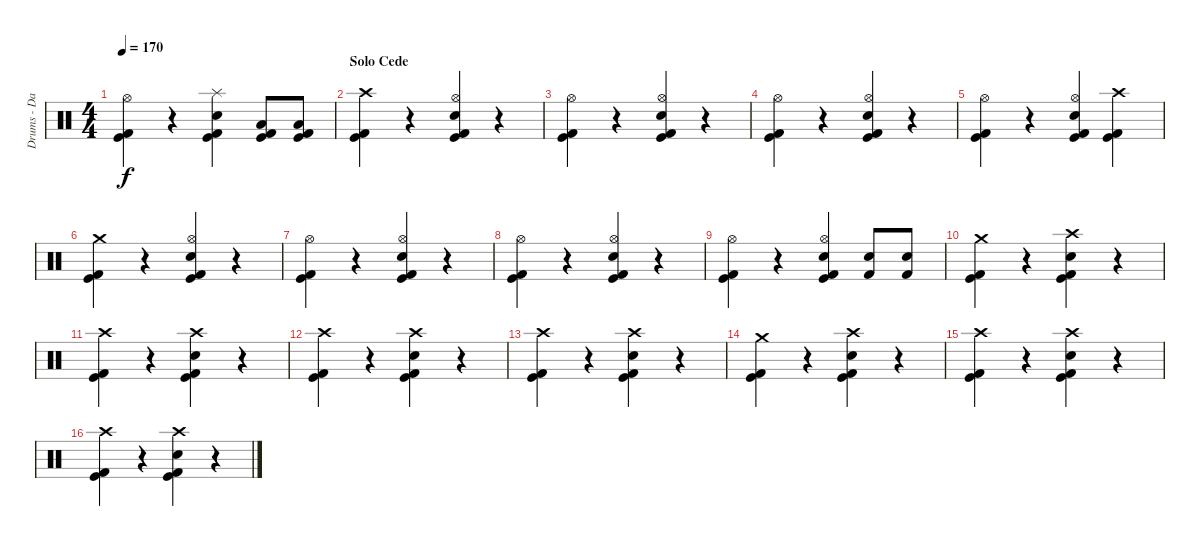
\track ("Drums - Daniel Zimmermann" "Drums - Da") {instrument percussion}
\staff {score}
\articulation defaults
\ts (4 4)
\tempo 170
\clef neutral
\ks c
("Kick (hit) 2" "Kick (hit)" "Hi-Hat (open)").4{dy f} r.4 ("Kick (hit) 2" "Kick (hit)" "Electric Snare (hit)" "Splash (hit)").4 ("Kick (hit) 2" "Kick (hit)" "Low Tom (hit)").8 ("Kick (hit) 2" "Kick (hit)" "Low Tom (hit)").8 |
\section ("" "Solo Cede")
("Kick (hit) 2" "Kick (hit)" "Crash high (hit)").4 r.4 ("Kick (hit) 2" "Kick (hit)" "Electric Snare (hit)" "Hi-Hat (open)").4 r.4 |
("Kick (hit) 2" "Kick (hit)" "Hi-Hat (open)").4 r.4 ("Kick (hit) 2" "Kick (hit)" "Electric Snare (hit)" "Hi-Hat (open)").4 r.4 |
("Kick (hit) 2" "Kick (hit)" "Hi-Hat (open)").4 r.4 ("Kick (hit) 2" "Kick (hit)" "Electric Snare (hit)" "Hi-Hat (open)").4 r.4 |
("Kick (hit) 2" "Kick (hit)" "Hi-Hat (open)").4 r.4 ("Kick (hit) 2" "Kick (hit)" "Electric Snare (hit)" "Hi-Hat (open)").4 ("Kick (hit) 2" "Kick (hit)" "Crash high (hit)").4 |
("Kick (hit) 2" "Kick (hit)" "Crash medium (hit)").4 r.4 ("Kick (hit) 2" "Kick (hit)" "Electric Snare (hit)" "Hi-Hat (open)").4 r.4 |
("Kick (hit) 2" "Kick (hit)" "Hi-Hat (open)").4 r.4 ("Kick (hit) 2" "Kick (hit)" "Electric Snare (hit)" "Hi-Hat (open)").4 r.4 |
("Kick (hit) 2" "Kick (hit)" "Hi-Hat (open)").4 r.4 ("Kick (hit) 2" "Kick (hit)" "Electric Snare (hit)" "Hi-Hat (open)").4 r.4 |
("Kick (hit) 2" "Kick (hit)" "Hi-Hat (open)").4 r.4 ("Kick (hit) 2" "Kick (hit)" "Electric Snare (hit)" "Hi-Hat (open)").4 ("Kick (hit) 2" "Electric Snare (hit)").8 ("Kick (hit) 2" "Electric Snare (hit)").8 |
("Kick (hit) 2" "Kick (hit)" "Crash medium (hit)").4 r.4 ("Kick (hit) 2" "Kick (hit)" "Electric Snare (hit)" "Crash high (hit)").4 r.4 |
("Kick (hit) 2" "Kick (hit)" "Crash high (hit)").4 r.4 ("Kick (hit) 2" "Kick (hit)" "Electric Snare (hit)" "Crash high (hit)").4 r.4 |
("Kick (hit) 2" "Kick (hit)" "Crash high (hit)").4 r.4 ("Kick (hit) 2" "Kick (hit)" "Electric Snare (hit)" "Crash high (hit)").4 r.4 |
("Kick (hit) 2" "Kick (hit)" "Crash high (hit)").4 r.4 ("Kick (hit) 2" "Kick (hit)" "Electric Snare (hit)" "Crash high (hit)").4 r.4 |
("Kick (hit) 2" "Kick (hit)" "Crash medium (hit)").4 r.4 ("Kick (hit) 2" "Kick (hit)" "Electric Snare (hit)" "Crash high (hit)").4 r.4 |
("Kick (hit) 2" "Kick (hit)" "Crash high (hit)").4 r.4 ("Kick (hit) 2" "Kick (hit)" "Electric Snare (hit)" "Crash high (hit)").4 r.4 |
("Kick (hit) 2" "Kick (hit)" "Crash high (hit)").4 r.4 ("Kick (hit) 2" "Kick (hit)" "Electric Snare (hit)" "Crash high (hit)").4 r.4
